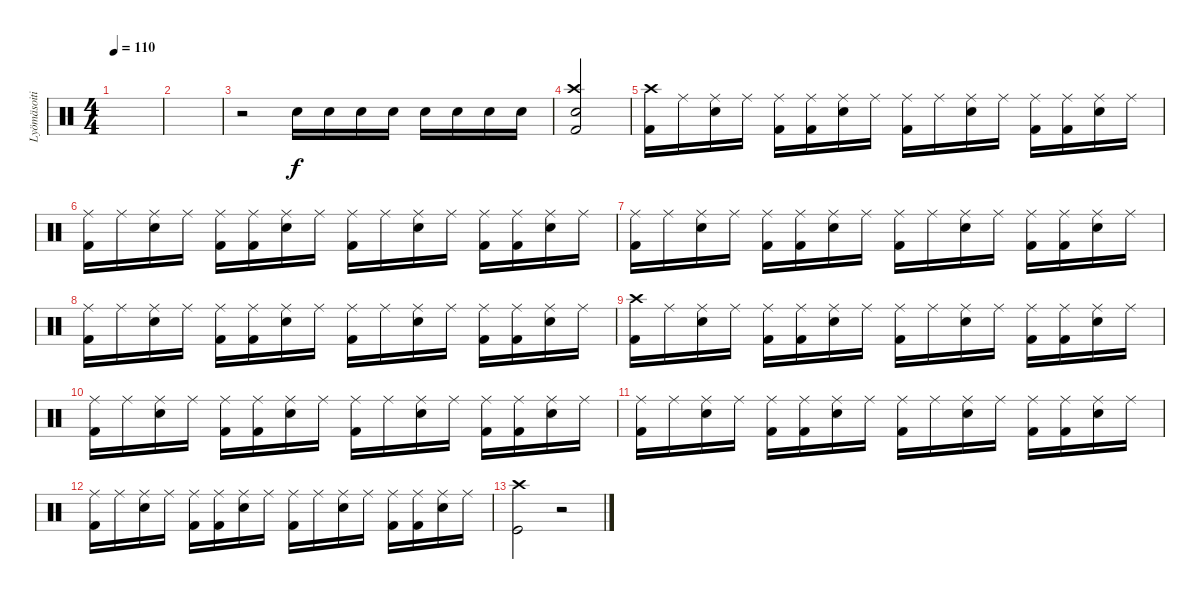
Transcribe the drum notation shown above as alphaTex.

\track ("Lyömäsoitin" "Lyömäsoiti") {instrument percussion}
\staff {score}
\articulation defaults
\ts (4 4)
\tempo 110
\clef neutral
\ks c
|
|
r.2 "Snare (hit) 2".16 "Snare (hit) 2".16 "Snare (hit) 2".16 "Snare (hit) 2".16 "Snare (hit) 2".16 "Snare (hit) 2".16 "Snare (hit) 2".16 "Snare (hit) 2".16 |
("Crash high (hit)" "Snare (hit) 2" "Kick (hit) 2").2 |
("Crash high (hit)" "Kick (hit) 2").16 "Ride (middle)".16 ("Ride (middle)" "Snare (hit) 2").16 "Ride (middle)".16 ("Ride (middle)" "Kick (hit) 2").16 ("Ride (middle)" "Kick (hit) 2").16 ("Ride (middle)" "Snare (hit) 2").16 "Ride (middle)".16 ("Ride (middle)" "Kick (hit) 2").16 "Ride (middle)".16 ("Ride (middle)" "Snare (hit) 2").16 "Ride (middle)".16 ("Ride (middle)" "Kick (hit) 2").16 ("Ride (middle)" "Kick (hit) 2").16 ("Ride (middle)" "Snare (hit) 2").16 "Ride (middle)".16 |
("Ride (middle)" "Kick (hit) 2").16 "Ride (middle)".16 ("Ride (middle)" "Snare (hit) 2").16 "Ride (middle)".16 ("Ride (middle)" "Kick (hit) 2").16 ("Ride (middle)" "Kick (hit) 2").16 ("Ride (middle)" "Snare (hit) 2").16 "Ride (middle)".16 ("Ride (middle)" "Kick (hit) 2").16 "Ride (middle)".16 ("Ride (middle)" "Snare (hit) 2").16 "Ride (middle)".16 ("Ride (middle)" "Kick (hit) 2").16 ("Ride (middle)" "Kick (hit) 2").16 ("Ride (middle)" "Snare (hit) 2").16 "Ride (middle)".16 |
("Ride (middle)" "Kick (hit) 2").16 "Ride (middle)".16 ("Ride (middle)" "Snare (hit) 2").16 "Ride (middle)".16 ("Ride (middle)" "Kick (hit) 2").16 ("Ride (middle)" "Kick (hit) 2").16 ("Ride (middle)" "Snare (hit) 2").16 "Ride (middle)".16 ("Ride (middle)" "Kick (hit) 2").16 "Ride (middle)".16 ("Ride (middle)" "Snare (hit) 2").16 "Ride (middle)".16 ("Ride (middle)" "Kick (hit) 2").16 ("Ride (middle)" "Kick (hit) 2").16 ("Ride (middle)" "Snare (hit) 2").16 "Ride (middle)".16 |
("Ride (middle)" "Kick (hit) 2").16 "Ride (middle)".16 ("Ride (middle)" "Snare (hit) 2").16 "Ride (middle)".16 ("Ride (middle)" "Kick (hit) 2").16 ("Ride (middle)" "Kick (hit) 2").16 ("Ride (middle)" "Snare (hit) 2").16 "Ride (middle)".16 ("Ride (middle)" "Kick (hit) 2").16 "Ride (middle)".16 ("Ride (middle)" "Snare (hit) 2").16 "Ride (middle)".16 ("Ride (middle)" "Kick (hit) 2").16 ("Ride (middle)" "Kick (hit) 2").16 ("Ride (middle)" "Snare (hit) 2").16 "Ride (middle)".16 |
("Crash high (hit)" "Kick (hit) 2").16 "Ride (middle)".16 ("Ride (middle)" "Snare (hit) 2").16 "Ride (middle)".16 ("Ride (middle)" "Kick (hit) 2").16 ("Ride (middle)" "Kick (hit) 2").16 ("Ride (middle)" "Snare (hit) 2").16 "Ride (middle)".16 ("Ride (middle)" "Kick (hit) 2").16 "Ride (middle)".16 ("Ride (middle)" "Snare (hit) 2").16 "Ride (middle)".16 ("Ride (middle)" "Kick (hit) 2").16 ("Ride (middle)" "Kick (hit) 2").16 ("Ride (middle)" "Snare (hit) 2").16 "Ride (middle)".16 |
("Ride (middle)" "Kick (hit) 2").16 "Ride (middle)".16 ("Ride (middle)" "Snare (hit) 2").16 "Ride (middle)".16 ("Ride (middle)" "Kick (hit) 2").16 ("Ride (middle)" "Kick (hit) 2").16 ("Ride (middle)" "Snare (hit) 2").16 "Ride (middle)".16 ("Ride (middle)" "Kick (hit) 2").16 "Ride (middle)".16 ("Ride (middle)" "Snare (hit) 2").16 "Ride (middle)".16 ("Ride (middle)" "Kick (hit) 2").16 ("Ride (middle)" "Kick (hit) 2").16 ("Ride (middle)" "Snare (hit) 2").16 "Ride (middle)".16 |
("Ride (middle)" "Kick (hit) 2").16 "Ride (middle)".16 ("Ride (middle)" "Snare (hit) 2").16 "Ride (middle)".16 ("Ride (middle)" "Kick (hit) 2").16 ("Ride (middle)" "Kick (hit) 2").16 ("Ride (middle)" "Snare (hit) 2").16 "Ride (middle)".16 ("Ride (middle)" "Kick (hit) 2").16 "Ride (middle)".16 ("Ride (middle)" "Snare (hit) 2").16 "Ride (middle)".16 ("Ride (middle)" "Kick (hit) 2").16 ("Ride (middle)" "Kick (hit) 2").16 ("Ride (middle)" "Snare (hit) 2").16 "Ride (middle)".16 |
("Ride (middle)" "Kick (hit) 2").16 "Ride (middle)".16 ("Ride (middle)" "Snare (hit) 2").16 "Ride (middle)".16 ("Ride (middle)" "Kick (hit) 2").16 ("Ride (middle)" "Kick (hit) 2").16 ("Ride (middle)" "Snare (hit) 2").16 "Ride (middle)".16 ("Ride (middle)" "Kick (hit) 2").16 "Ride (middle)".16 ("Ride (middle)" "Snare (hit) 2").16 "Ride (middle)".16 ("Ride (middle)" "Kick (hit) 2").16 ("Ride (middle)" "Kick (hit) 2").16 ("Ride (middle)" "Snare (hit) 2").16 "Ride (middle)".16 |
("Crash high (hit)" "Kick (hit)").2 r.2
